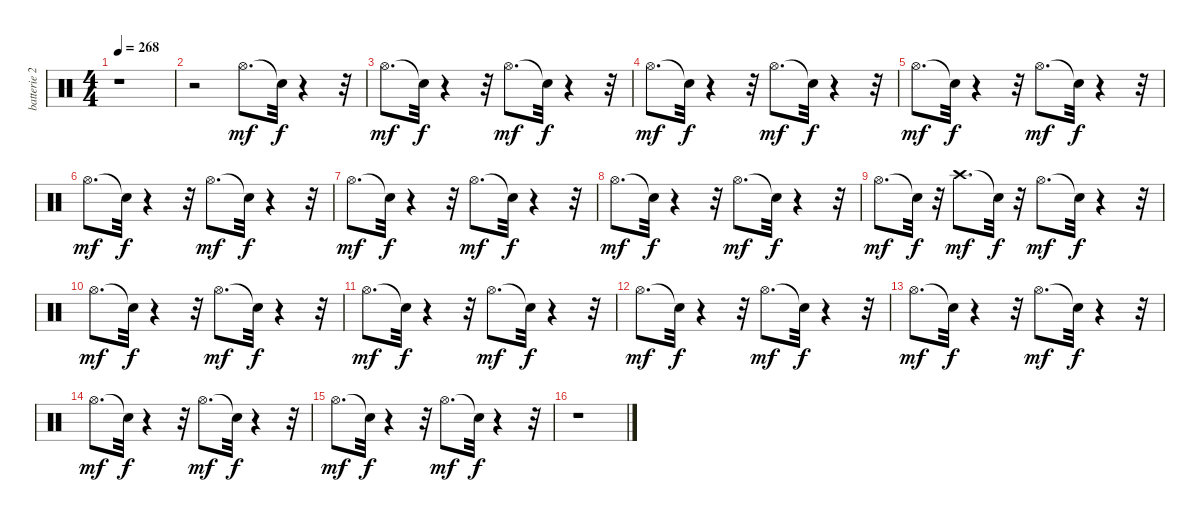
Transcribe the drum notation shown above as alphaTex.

\track ("batterie 2" "batterie 2") {instrument percussion}
\staff {score}
\articulation defaults
\ts (4 4)
\tempo 268
\clef neutral
\ks c
r.1{dy mf} |
r.2 "Hi-Hat (open)".8{d} "Snare (hit)"{t}.32{dy f} r.4 r.32 |
"Hi-Hat (open)".8{d dy mf} "Snare (hit)"{t}.32{dy f} r.4 r.32 "Hi-Hat (open)".8{d dy mf} "Snare (hit)"{t}.32{dy f} r.4 r.32 |
"Hi-Hat (open)".8{d dy mf} "Snare (hit)"{t}.32{dy f} r.4 r.32 "Hi-Hat (open)".8{d dy mf} "Snare (hit)"{t}.32{dy f} r.4 r.32 |
"Hi-Hat (open)".8{d dy mf} "Snare (hit)"{t}.32{dy f} r.4 r.32 "Hi-Hat (open)".8{d dy mf} "Snare (hit)"{t}.32{dy f} r.4 r.32 |
"Hi-Hat (open)".8{d dy mf} "Snare (hit)"{t}.32{dy f} r.4 r.32 "Hi-Hat (open)".8{d dy mf} "Snare (hit)"{t}.32{dy f} r.4 r.32 |
"Hi-Hat (open)".8{d dy mf} "Snare (hit)"{t}.32{dy f} r.4 r.32 "Hi-Hat (open)".8{d dy mf} "Snare (hit)"{t}.32{dy f} r.4 r.32 |
"Hi-Hat (open)".8{d dy mf} "Snare (hit)"{t}.32{dy f} r.4 r.32 "Hi-Hat (open)".8{d dy mf} "Snare (hit)"{t}.32{dy f} r.4 r.32 |
"Hi-Hat (open)".8{d dy mf} "Snare (hit)"{t}.32{dy f} r.32 "Crash high (hit)".8{d dy mf} "Snare (hit)"{t}.32{dy f} r.32 "Hi-Hat (open)".8{d dy mf} "Snare (hit)"{t}.32{dy f} r.4 r.32 |
"Hi-Hat (open)".8{d dy mf} "Snare (hit)"{t}.32{dy f} r.4 r.32 "Hi-Hat (open)".8{d dy mf} "Snare (hit)"{t}.32{dy f} r.4 r.32 |
"Hi-Hat (open)".8{d dy mf} "Snare (hit)"{t}.32{dy f} r.4 r.32 "Hi-Hat (open)".8{d dy mf} "Snare (hit)"{t}.32{dy f} r.4 r.32 |
"Hi-Hat (open)".8{d dy mf} "Snare (hit)"{t}.32{dy f} r.4 r.32 "Hi-Hat (open)".8{d dy mf} "Snare (hit)"{t}.32{dy f} r.4 r.32 |
"Hi-Hat (open)".8{d dy mf} "Snare (hit)"{t}.32{dy f} r.4 r.32 "Hi-Hat (open)".8{d dy mf} "Snare (hit)"{t}.32{dy f} r.4 r.32 |
"Hi-Hat (open)".8{d dy mf} "Snare (hit)"{t}.32{dy f} r.4 r.32 "Hi-Hat (open)".8{d dy mf} "Snare (hit)"{t}.32{dy f} r.4 r.32 |
"Hi-Hat (open)".8{d dy mf} "Snare (hit)"{t}.32{dy f} r.4 r.32 "Hi-Hat (open)".8{d dy mf} "Snare (hit)"{t}.32{dy f} r.4 r.32 |
r.1
